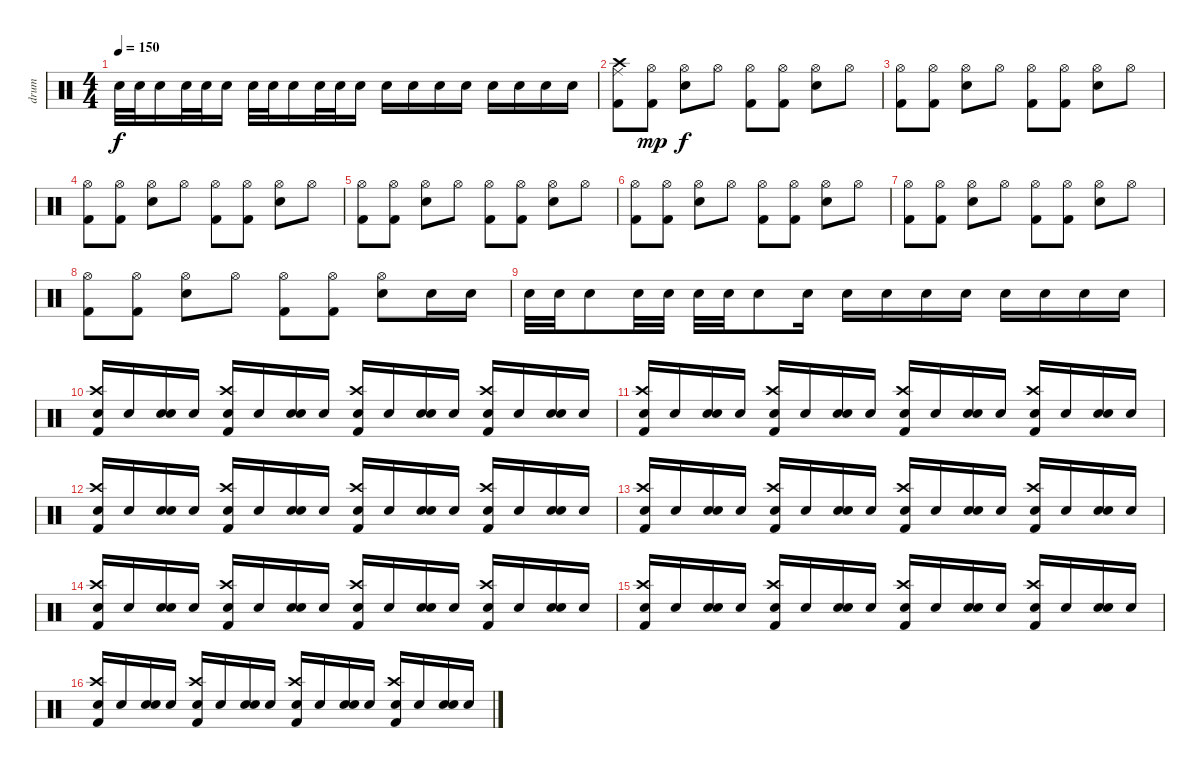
\track ("drum" "drum") {instrument percussion}
\staff {score}
\articulation defaults
\ts (4 4)
\tempo 150
\clef neutral
\ks c "Snare (hit) 2".32{dy f} "Snare (hit) 2".32 "Snare (hit) 2".16 "Snare (hit) 2".32 "Snare (hit)".32 "Snare (hit) 2".16 "Snare (hit) 2".32 "Snare (hit) 2".32 "Snare (hit) 2".16 "Snare (hit) 2".32 "Snare (hit)".32 "Snare (hit) 2".16 "Snare (hit) 2".16 "Snare (hit) 2".16 "Snare (hit) 2".16 "Snare (hit) 2".16 "Snare (hit) 2".16 "Snare (hit) 2".16 "Snare (hit) 2".16 "Snare (hit) 2".16
|
("Ride (middle)" "Crash high (hit)" "Kick (hit) 2").8 ("Hi-Hat (open)" "Kick (hit) 2").8{dy mp} ("Hi-Hat (open)" "Snare (hit) 2").8{dy f} "Hi-Hat (open)".8 ("Hi-Hat (open)" "Kick (hit) 2").8 ("Hi-Hat (open)" "Kick (hit) 2").8 ("Hi-Hat (open)" "Snare (hit) 2").8 "Hi-Hat (open)".8 |
("Hi-Hat (open)" "Kick (hit) 2").8 ("Hi-Hat (open)" "Kick (hit) 2").8 ("Hi-Hat (open)" "Snare (hit) 2").8 "Hi-Hat (open)".8 ("Hi-Hat (open)" "Kick (hit) 2").8 ("Hi-Hat (open)" "Kick (hit) 2").8 ("Hi-Hat (open)" "Snare (hit) 2").8 "Hi-Hat (open)".8 |
("Hi-Hat (open)" "Kick (hit) 2").8 ("Hi-Hat (open)" "Kick (hit) 2").8 ("Hi-Hat (open)" "Snare (hit) 2").8 "Hi-Hat (open)".8 ("Hi-Hat (open)" "Kick (hit) 2").8 ("Hi-Hat (open)" "Kick (hit) 2").8 ("Hi-Hat (open)" "Snare (hit) 2").8 "Hi-Hat (open)".8 |
("Hi-Hat (open)" "Kick (hit) 2").8 ("Hi-Hat (open)" "Kick (hit) 2").8 ("Hi-Hat (open)" "Snare (hit) 2").8 "Hi-Hat (open)".8 ("Hi-Hat (open)" "Kick (hit) 2").8 ("Hi-Hat (open)" "Kick (hit) 2").8 ("Hi-Hat (open)" "Snare (hit) 2").8 "Hi-Hat (open)".8 |
("Hi-Hat (open)" "Kick (hit) 2").8 ("Hi-Hat (open)" "Kick (hit) 2").8 ("Hi-Hat (open)" "Snare (hit) 2").8 "Hi-Hat (open)".8 ("Hi-Hat (open)" "Kick (hit) 2").8 ("Hi-Hat (open)" "Kick (hit) 2").8 ("Hi-Hat (open)" "Snare (hit) 2").8 "Hi-Hat (open)".8 |
("Hi-Hat (open)" "Kick (hit) 2").8 ("Hi-Hat (open)" "Kick (hit) 2").8 ("Hi-Hat (open)" "Snare (hit) 2").8 "Hi-Hat (open)".8 ("Hi-Hat (open)" "Kick (hit) 2").8 ("Hi-Hat (open)" "Kick (hit) 2").8 ("Hi-Hat (open)" "Snare (hit) 2").8 "Hi-Hat (open)".8 |
("Hi-Hat (open)" "Kick (hit) 2").8 ("Hi-Hat (open)" "Kick (hit) 2").8 ("Hi-Hat (open)" "Snare (hit) 2").8 "Hi-Hat (open)".8 ("Hi-Hat (open)" "Kick (hit) 2").8 ("Hi-Hat (open)" "Kick (hit) 2").8 ("Hi-Hat (open)" "Snare (hit) 2").8 "Snare (hit) 2".16 "Snare (hit) 2".16 |
"Snare (hit) 2".32 "Snare (hit) 2".32 "Snare (hit) 2".8 "Snare (hit) 2".32 "Snare (hit) 2".32 "Snare (hit) 2".32 "Snare (hit) 2".32 "Snare (hit) 2".8 "Snare (hit) 2".16 "Snare (hit) 2".16 "Snare (hit) 2".16 "Snare (hit) 2".16 "Snare (hit) 2".16 "Snare (hit) 2".16 "Snare (hit) 2".16 "Snare (hit) 2".16 "Snare (hit) 2".16 |
("Crash high (hit)" "Snare (hit) 2" "Kick (hit) 2").16 "Snare (hit) 2".16 ("Snare (hit) 2" "Snare (hit) 2").16 "Snare (hit) 2".16 ("Crash high (hit)" "Snare (hit) 2" "Kick (hit) 2").16 "Snare (hit) 2".16 ("Snare (hit) 2" "Snare (hit) 2").16 "Snare (hit) 2".16 ("Crash high (hit)" "Snare (hit) 2" "Kick (hit) 2").16 "Snare (hit) 2".16 ("Snare (hit) 2" "Snare (hit) 2").16 "Snare (hit) 2".16 ("Crash high (hit)" "Snare (hit) 2" "Kick (hit) 2").16 "Snare (hit) 2".16 ("Snare (hit) 2" "Snare (hit) 2").16 "Snare (hit) 2".16 |
("Crash high (hit)" "Snare (hit) 2" "Kick (hit) 2").16 "Snare (hit) 2".16 ("Snare (hit) 2" "Snare (hit) 2").16 "Snare (hit) 2".16 ("Crash high (hit)" "Snare (hit) 2" "Kick (hit) 2").16 "Snare (hit) 2".16 ("Snare (hit) 2" "Snare (hit) 2").16 "Snare (hit) 2".16 ("Crash high (hit)" "Snare (hit) 2" "Kick (hit) 2").16 "Snare (hit) 2".16 ("Snare (hit) 2" "Snare (hit) 2").16 "Snare (hit) 2".16 ("Crash high (hit)" "Snare (hit) 2" "Kick (hit) 2").16 "Snare (hit) 2".16 ("Snare (hit) 2" "Snare (hit) 2").16 "Snare (hit) 2".16 |
("Crash high (hit)" "Snare (hit) 2" "Kick (hit) 2").16 "Snare (hit) 2".16 ("Snare (hit) 2" "Snare (hit) 2").16 "Snare (hit) 2".16 ("Crash high (hit)" "Snare (hit) 2" "Kick (hit) 2").16 "Snare (hit) 2".16 ("Snare (hit) 2" "Snare (hit) 2").16 "Snare (hit) 2".16 ("Crash high (hit)" "Snare (hit) 2" "Kick (hit) 2").16 "Snare (hit) 2".16 ("Snare (hit) 2" "Snare (hit) 2").16 "Snare (hit) 2".16 ("Crash high (hit)" "Snare (hit) 2" "Kick (hit) 2").16 "Snare (hit) 2".16 ("Snare (hit) 2" "Snare (hit) 2").16 "Snare (hit) 2".16 |
("Crash high (hit)" "Snare (hit) 2" "Kick (hit) 2").16 "Snare (hit) 2".16 ("Snare (hit) 2" "Snare (hit) 2").16 "Snare (hit) 2".16 ("Crash high (hit)" "Snare (hit) 2" "Kick (hit) 2").16 "Snare (hit) 2".16 ("Snare (hit) 2" "Snare (hit) 2").16 "Snare (hit) 2".16 ("Crash high (hit)" "Snare (hit) 2" "Kick (hit) 2").16 "Snare (hit) 2".16 ("Snare (hit) 2" "Snare (hit) 2").16 "Snare (hit) 2".16 ("Crash high (hit)" "Snare (hit) 2" "Kick (hit) 2").16 "Snare (hit) 2".16 ("Snare (hit) 2" "Snare (hit) 2").16 "Snare (hit) 2".16 |
("Crash high (hit)" "Snare (hit) 2" "Kick (hit) 2").16 "Snare (hit) 2".16 ("Snare (hit) 2" "Snare (hit) 2").16 "Snare (hit) 2".16 ("Crash high (hit)" "Snare (hit) 2" "Kick (hit) 2").16 "Snare (hit) 2".16 ("Snare (hit) 2" "Snare (hit) 2").16 "Snare (hit) 2".16 ("Crash high (hit)" "Snare (hit) 2" "Kick (hit) 2").16 "Snare (hit) 2".16 ("Snare (hit) 2" "Snare (hit) 2").16 "Snare (hit) 2".16 ("Crash high (hit)" "Snare (hit) 2" "Kick (hit) 2").16 "Snare (hit) 2".16 ("Snare (hit) 2" "Snare (hit) 2").16 "Snare (hit) 2".16 |
("Crash high (hit)" "Snare (hit) 2" "Kick (hit) 2").16 "Snare (hit) 2".16 ("Snare (hit) 2" "Snare (hit) 2").16 "Snare (hit) 2".16 ("Crash high (hit)" "Snare (hit) 2" "Kick (hit) 2").16 "Snare (hit) 2".16 ("Snare (hit) 2" "Snare (hit) 2").16 "Snare (hit) 2".16 ("Crash high (hit)" "Snare (hit) 2" "Kick (hit) 2").16 "Snare (hit) 2".16 ("Snare (hit) 2" "Snare (hit) 2").16 "Snare (hit) 2".16 ("Crash high (hit)" "Snare (hit) 2" "Kick (hit) 2").16 "Snare (hit) 2".16 ("Snare (hit) 2" "Snare (hit) 2").16 "Snare (hit) 2".16 |
("Crash high (hit)" "Snare (hit) 2" "Kick (hit) 2").16 "Snare (hit) 2".16 ("Snare (hit) 2" "Snare (hit) 2").16 "Snare (hit) 2".16 ("Crash high (hit)" "Snare (hit) 2" "Kick (hit) 2").16 "Snare (hit) 2".16 ("Snare (hit) 2" "Snare (hit) 2").16 "Snare (hit) 2".16 ("Crash high (hit)" "Snare (hit) 2" "Kick (hit) 2").16 "Snare (hit) 2".16 ("Snare (hit) 2" "Snare (hit) 2").16 "Snare (hit) 2".16 ("Crash high (hit)" "Snare (hit) 2" "Kick (hit) 2").16 "Snare (hit) 2".16 ("Snare (hit) 2" "Snare (hit) 2").16 "Snare (hit) 2".16
